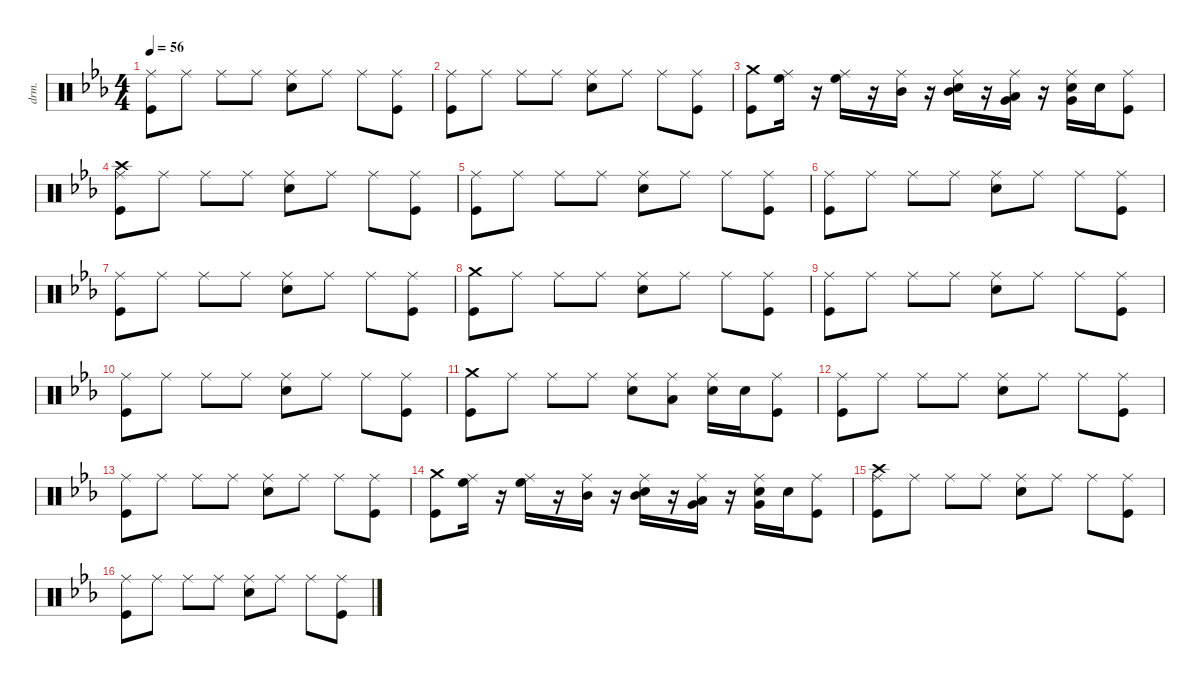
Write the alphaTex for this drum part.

\defaultSystemsLayout 4
\hideDynamics
\bracketExtendMode nobrackets
\otherSystemsTrackNameOrientation horizontal
\track ("Percussion" "drm.") {instrument percussion}
\staff {score}
\articulation defaults
\ts (4 4)
\tempo 56
\clef neutral
\ks cminor
("Ride (middle)"{acc forcenatural} "Kick (hit)"{acc forcenatural}).8{dy f beam Down} "Ride (middle)"{acc forcenatural}.8{beam Down} "Ride (middle)"{acc forcenatural}.8{beam Down} "Ride (middle)"{acc forcenatural}.8{beam Down} ("Snare (hit) 2"{acc forcenatural} "Ride (middle)"{acc forcenatural}).8{beam Down} "Ride (middle)"{acc forcenatural}.8{beam Down} "Ride (middle)"{acc forcenatural}.8{beam Down} ("Kick (hit)"{acc forcenatural} "Ride (middle)"{acc forcenatural}).8{beam Down} |
("Ride (middle)"{acc forcenatural} "Kick (hit)"{acc forcenatural}).8{beam Down} "Ride (middle)"{acc forcenatural}.8{beam Down} "Ride (middle)"{acc forcenatural}.8{beam Down} "Ride (middle)"{acc forcenatural}.8{beam Down} ("Snare (hit) 2"{acc forcenatural} "Ride (middle)"{acc forcenatural}).8{beam Down} "Ride (middle)"{acc forcenatural}.8{beam Down} "Ride (middle)"{acc forcenatural}.8{beam Down} ("Kick (hit)"{acc forcenatural} "Ride (middle)"{acc forcenatural}).8{beam Down} |
("Crash medium (hit)"{acc forcenatural} "Kick (hit)"{acc forcenatural}).8{beam Down} ("High Floor Tom (hit)"{acc forcenatural} "Ride (middle)"{acc forcenatural}).16{beam Down} r.16{beam Down} ("High Floor Tom (hit)"{acc forcenatural} "Ride (middle)"{acc forcenatural}).16{beam Down} r.16{beam Down} ("Mid Tom (hit)"{acc forcenatural} "Ride (middle)"{acc forcenatural}).16{beam Down} r.16{beam Down} ("Mid Tom (hit)"{acc forcenatural} "Snare (hit) 2"{acc forcenatural} "Ride (middle)"{acc forcenatural}).16{beam Down} r.16{beam Down} ("Very Low Tom (hit)"{acc forcenatural} "Low Floor Tom (hit)"{acc forcenatural} "Ride (middle)"{acc forcenatural}).16{beam Down} r.16{beam Down} ("Very Low Tom (hit)"{acc forcenatural} "Snare (hit) 2"{acc forcenatural} "Ride (middle)"{acc forcenatural}).16{beam Down} "Snare (hit) 2"{acc forcenatural}.16{beam Down} ("Kick (hit)"{acc forcenatural} "Ride (middle)"{acc forcenatural}).8{beam Down} |
("Crash high (hit)"{acc forcenatural} "Kick (hit)"{acc forcenatural} "Ride (middle)"{acc forcenatural}).8{beam Down} "Ride (middle)"{acc forcenatural}.8{beam Down} "Ride (middle)"{acc forcenatural}.8{beam Down} "Ride (middle)"{acc forcenatural}.8{beam Down} ("Snare (hit) 2"{acc forcenatural} "Ride (middle)"{acc forcenatural}).8{beam Down} "Ride (middle)"{acc forcenatural}.8{beam Down} "Ride (middle)"{acc forcenatural}.8{beam Down} ("Kick (hit)"{acc forcenatural} "Ride (middle)"{acc forcenatural}).8{beam Down} |
("Ride (middle)"{acc forcenatural} "Kick (hit)"{acc forcenatural}).8{beam Down} "Ride (middle)"{acc forcenatural}.8{beam Down} "Ride (middle)"{acc forcenatural}.8{beam Down} "Ride (middle)"{acc forcenatural}.8{beam Down} ("Snare (hit) 2"{acc forcenatural} "Ride (middle)"{acc forcenatural}).8{beam Down} "Ride (middle)"{acc forcenatural}.8{beam Down} "Ride (middle)"{acc forcenatural}.8{beam Down} ("Kick (hit)"{acc forcenatural} "Ride (middle)"{acc forcenatural}).8{beam Down} |
("Ride (middle)"{acc forcenatural} "Kick (hit)"{acc forcenatural}).8{beam Down} "Ride (middle)"{acc forcenatural}.8{beam Down} "Ride (middle)"{acc forcenatural}.8{beam Down} "Ride (middle)"{acc forcenatural}.8{beam Down} ("Snare (hit) 2"{acc forcenatural} "Ride (middle)"{acc forcenatural}).8{beam Down} "Ride (middle)"{acc forcenatural}.8{beam Down} "Ride (middle)"{acc forcenatural}.8{beam Down} ("Kick (hit)"{acc forcenatural} "Ride (middle)"{acc forcenatural}).8{beam Down} |
("Ride (middle)"{acc forcenatural} "Kick (hit)"{acc forcenatural}).8{beam Down} "Ride (middle)"{acc forcenatural}.8{beam Down} "Ride (middle)"{acc forcenatural}.8{beam Down} "Ride (middle)"{acc forcenatural}.8{beam Down} ("Snare (hit) 2"{acc forcenatural} "Ride (middle)"{acc forcenatural}).8{beam Down} "Ride (middle)"{acc forcenatural}.8{beam Down} "Ride (middle)"{acc forcenatural}.8{beam Down} ("Kick (hit)"{acc forcenatural} "Ride (middle)"{acc forcenatural}).8{beam Down} |
("Crash medium (hit)"{acc forcenatural} "Kick (hit)"{acc forcenatural}).8{beam Down} "Ride (middle)"{acc forcenatural}.8{beam Down} "Ride (middle)"{acc forcenatural}.8{beam Down} "Ride (middle)"{acc forcenatural}.8{beam Down} ("Snare (hit) 2"{acc forcenatural} "Ride (middle)"{acc forcenatural}).8{beam Down} "Ride (middle)"{acc forcenatural}.8{beam Down} "Ride (middle)"{acc forcenatural}.8{beam Down} ("Kick (hit)"{acc forcenatural} "Ride (middle)"{acc forcenatural}).8{beam Down} |
("Ride (middle)"{acc forcenatural} "Kick (hit)"{acc forcenatural}).8{beam Down} "Ride (middle)"{acc forcenatural}.8{beam Down} "Ride (middle)"{acc forcenatural}.8{beam Down} "Ride (middle)"{acc forcenatural}.8{beam Down} ("Snare (hit) 2"{acc forcenatural} "Ride (middle)"{acc forcenatural}).8{beam Down} "Ride (middle)"{acc forcenatural}.8{beam Down} "Ride (middle)"{acc forcenatural}.8{beam Down} ("Kick (hit)"{acc forcenatural} "Ride (middle)"{acc forcenatural}).8{beam Down} |
("Ride (middle)"{acc forcenatural} "Kick (hit)"{acc forcenatural}).8{beam Down} "Ride (middle)"{acc forcenatural}.8{beam Down} "Ride (middle)"{acc forcenatural}.8{beam Down} "Ride (middle)"{acc forcenatural}.8{beam Down} ("Snare (hit) 2"{acc forcenatural} "Ride (middle)"{acc forcenatural}).8{beam Down} "Ride (middle)"{acc forcenatural}.8{beam Down} "Ride (middle)"{acc forcenatural}.8{beam Down} ("Kick (hit)"{acc forcenatural} "Ride (middle)"{acc forcenatural}).8{beam Down} |
("Crash medium (hit)"{acc forcenatural} "Kick (hit)"{acc forcenatural}).8{beam Down} "Ride (middle)"{acc forcenatural}.8{beam Down} "Ride (middle)"{acc forcenatural}.8{beam Down} "Ride (middle)"{acc forcenatural}.8{beam Down} ("Snare (hit) 2"{acc forcenatural} "Ride (middle)"{acc forcenatural}).8{beam Down} ("Low Floor Tom (hit)"{acc forcenatural} "Ride (middle)"{acc forcenatural}).8{beam Down} ("Snare (hit) 2"{acc forcenatural} "Ride (middle)"{acc forcenatural}).16{beam Down} "Snare (hit) 2"{acc forcenatural}.16{beam Down} ("Kick (hit)"{acc forcenatural} "Ride (middle)"{acc forcenatural}).8{beam Down} |
("Ride (middle)"{acc forcenatural} "Kick (hit)"{acc forcenatural}).8{beam Down} "Ride (middle)"{acc forcenatural}.8{beam Down} "Ride (middle)"{acc forcenatural}.8{beam Down} "Ride (middle)"{acc forcenatural}.8{beam Down} ("Snare (hit) 2"{acc forcenatural} "Ride (middle)"{acc forcenatural}).8{beam Down} "Ride (middle)"{acc forcenatural}.8{beam Down} "Ride (middle)"{acc forcenatural}.8{beam Down} ("Kick (hit)"{acc forcenatural} "Ride (middle)"{acc forcenatural}).8{beam Down} |
("Ride (middle)"{acc forcenatural} "Kick (hit)"{acc forcenatural}).8{beam Down} "Ride (middle)"{acc forcenatural}.8{beam Down} "Ride (middle)"{acc forcenatural}.8{beam Down} "Ride (middle)"{acc forcenatural}.8{beam Down} ("Snare (hit) 2"{acc forcenatural} "Ride (middle)"{acc forcenatural}).8{beam Down} "Ride (middle)"{acc forcenatural}.8{beam Down} "Ride (middle)"{acc forcenatural}.8{beam Down} ("Kick (hit)"{acc forcenatural} "Ride (middle)"{acc forcenatural}).8{beam Down} |
("Crash medium (hit)"{acc forcenatural} "Kick (hit)"{acc forcenatural}).8{beam Down} ("High Floor Tom (hit)"{acc forcenatural} "Ride (middle)"{acc forcenatural}).16{beam Down} r.16{beam Down} ("High Floor Tom (hit)"{acc forcenatural} "Ride (middle)"{acc forcenatural}).16{beam Down} r.16{beam Down} ("Mid Tom (hit)"{acc forcenatural} "Ride (middle)"{acc forcenatural}).16{beam Down} r.16{beam Down} ("Mid Tom (hit)"{acc forcenatural} "Snare (hit) 2"{acc forcenatural} "Ride (middle)"{acc forcenatural}).16{beam Down} r.16{beam Down} ("Very Low Tom (hit)"{acc forcenatural} "Low Floor Tom (hit)"{acc forcenatural} "Ride (middle)"{acc forcenatural}).16{beam Down} r.16{beam Down} ("Very Low Tom (hit)"{acc forcenatural} "Snare (hit) 2"{acc forcenatural} "Ride (middle)"{acc forcenatural}).16{beam Down} "Snare (hit) 2"{acc forcenatural}.16{beam Down} ("Kick (hit)"{acc forcenatural} "Ride (middle)"{acc forcenatural}).8{beam Down} |
("Crash high (hit)"{acc forcenatural} "Kick (hit)"{acc forcenatural} "Ride (middle)"{acc forcenatural}).8{beam Down} "Ride (middle)"{acc forcenatural}.8{beam Down} "Ride (middle)"{acc forcenatural}.8{beam Down} "Ride (middle)"{acc forcenatural}.8{beam Down} ("Snare (hit) 2"{acc forcenatural} "Ride (middle)"{acc forcenatural}).8{beam Down} "Ride (middle)"{acc forcenatural}.8{beam Down} "Ride (middle)"{acc forcenatural}.8{beam Down} ("Kick (hit)"{acc forcenatural} "Ride (middle)"{acc forcenatural}).8{beam Down} |
("Ride (middle)"{acc forcenatural} "Kick (hit)"{acc forcenatural}).8{beam Down} "Ride (middle)"{acc forcenatural}.8{beam Down} "Ride (middle)"{acc forcenatural}.8{beam Down} "Ride (middle)"{acc forcenatural}.8{beam Down} ("Snare (hit) 2"{acc forcenatural} "Ride (middle)"{acc forcenatural}).8{beam Down} "Ride (middle)"{acc forcenatural}.8{beam Down} "Ride (middle)"{acc forcenatural}.8{beam Down} ("Kick (hit)"{acc forcenatural} "Ride (middle)"{acc forcenatural}).8{beam Down}
